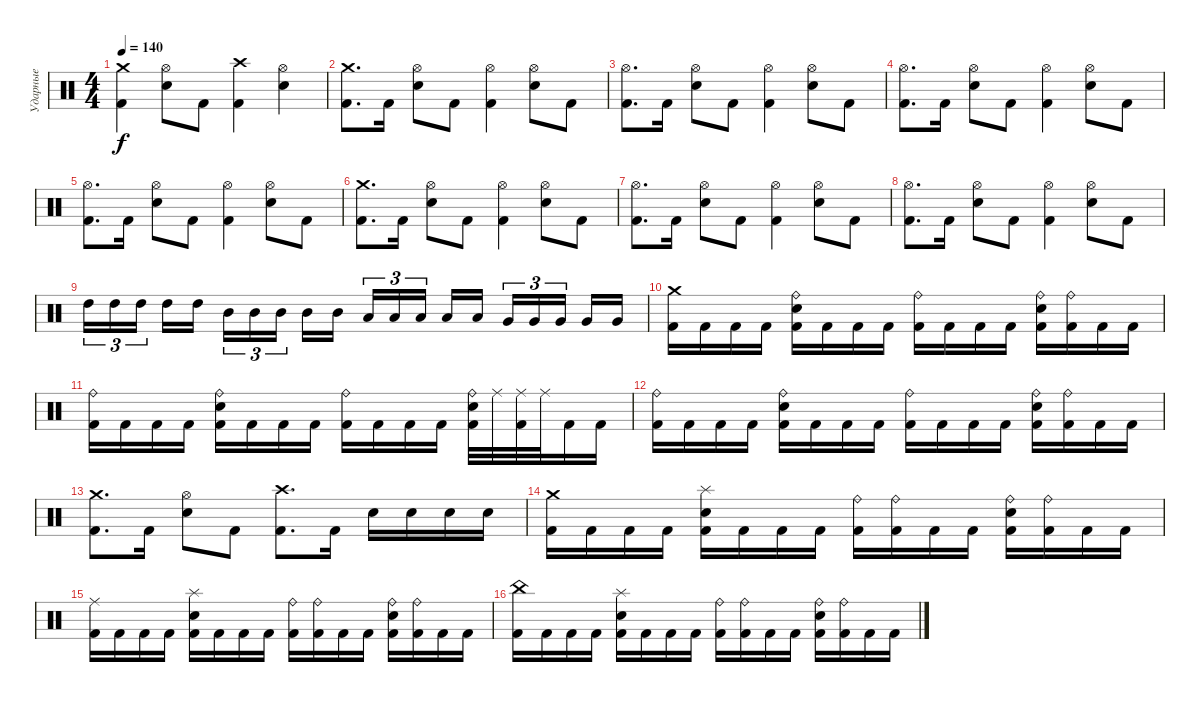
\track ("Ударные" "Ударные") {instrument percussion}
\staff {score}
\articulation defaults
\ts (4 4)
\tempo 140
\clef neutral
\ks c
("Crash medium (hit)" "Kick (hit) 2").4{dy f} ("Hi-Hat (open)" "Electric Snare (hit)").8 "Kick (hit) 2".8 ("Crash high (hit)" "Kick (hit) 2").4 ("Hi-Hat (open)" "Electric Snare (hit)").4 |
("Crash medium (hit)" "Kick (hit) 2").8{d} "Kick (hit) 2".16 ("Hi-Hat (open)" "Electric Snare (hit)").8 "Kick (hit) 2".8 ("Hi-Hat (open)" "Kick (hit) 2").4 ("Hi-Hat (open)" "Electric Snare (hit)").8 "Kick (hit) 2".8 |
("Hi-Hat (open)" "Kick (hit) 2").8{d} "Kick (hit) 2".16 ("Hi-Hat (open)" "Electric Snare (hit)").8 "Kick (hit) 2".8 ("Hi-Hat (open)" "Kick (hit) 2").4 ("Hi-Hat (open)" "Electric Snare (hit)").8 "Kick (hit) 2".8 |
("Hi-Hat (open)" "Kick (hit) 2").8{d} "Kick (hit) 2".16 ("Hi-Hat (open)" "Electric Snare (hit)").8 "Kick (hit) 2".8 ("Hi-Hat (open)" "Kick (hit) 2").4 ("Hi-Hat (open)" "Electric Snare (hit)").8 "Kick (hit) 2".8 |
("Hi-Hat (open)" "Kick (hit) 2").8{d} "Kick (hit) 2".16 ("Hi-Hat (open)" "Electric Snare (hit)").8 "Kick (hit) 2".8 ("Hi-Hat (open)" "Kick (hit) 2").4 ("Hi-Hat (open)" "Electric Snare (hit)").8 "Kick (hit) 2".8 |
("Crash medium (hit)" "Kick (hit) 2").8{d} "Kick (hit) 2".16 ("Hi-Hat (open)" "Electric Snare (hit)").8 "Kick (hit) 2".8 ("Hi-Hat (open)" "Kick (hit) 2").4 ("Hi-Hat (open)" "Electric Snare (hit)").8 "Kick (hit) 2".8 |
("Hi-Hat (open)" "Kick (hit) 2").8{d} "Kick (hit) 2".16 ("Hi-Hat (open)" "Electric Snare (hit)").8 "Kick (hit) 2".8 ("Hi-Hat (open)" "Kick (hit) 2").4 ("Hi-Hat (open)" "Electric Snare (hit)").8 "Kick (hit) 2".8 |
("Hi-Hat (open)" "Kick (hit) 2").8{d} "Kick (hit) 2".16 ("Hi-Hat (open)" "Electric Snare (hit)").8 "Kick (hit) 2".8 ("Hi-Hat (open)" "Kick (hit) 2").4 ("Hi-Hat (open)" "Electric Snare (hit)").8 "Kick (hit) 2".8 |
"High Tom (hit)".16{tu (3 2)} "High Tom (hit)".16{tu (3 2)} "High Tom (hit)".16{tu (3 2) beam splitsecondary} "High Tom (hit)".16 "High Tom (hit)".16 "Mid Tom (hit)".16{tu (3 2)} "Mid Tom (hit)".16{tu (3 2)} "Mid Tom (hit)".16{tu (3 2) beam splitsecondary} "Mid Tom (hit)".16 "Mid Tom (hit)".16 "Low Tom (hit)".16{tu (3 2)} "Low Tom (hit)".16{tu (3 2)} "Low Tom (hit)".16{tu (3 2) beam splitsecondary} "Low Tom (hit)".16 "Low Tom (hit)".16 "Very Low Tom (hit)".16{tu (3 2)} "Very Low Tom (hit)".16{tu (3 2)} "Very Low Tom (hit)".16{tu (3 2) beam splitsecondary} "Very Low Tom (hit)".16 "Very Low Tom (hit)".16 |
("Crash medium (hit)" "Kick (hit) 2").16 "Kick (hit) 2".16 "Kick (hit) 2".16 "Kick (hit) 2".16 ("Ride (bell)" "Electric Snare (hit)" "Kick (hit) 2").16 "Kick (hit) 2".16 "Kick (hit) 2".16 "Kick (hit) 2".16 ("Ride (bell)" "Kick (hit) 2").16 "Kick (hit) 2".16 "Kick (hit) 2".16 "Kick (hit) 2".16 ("Ride (bell)" "Electric Snare (hit)" "Kick (hit) 2").16 ("Ride (bell)" "Kick (hit) 2").16 "Kick (hit) 2".16 "Kick (hit) 2".16 |
("Ride (bell)" "Kick (hit) 2").16 "Kick (hit) 2".16 "Kick (hit) 2".16 "Kick (hit) 2".16 ("Ride (bell)" "Electric Snare (hit)" "Kick (hit) 2").16 "Kick (hit) 2".16 "Kick (hit) 2".16 "Kick (hit) 2".16 ("Ride (bell)" "Kick (hit) 2").16 "Kick (hit) 2".16 "Kick (hit) 2".16 "Kick (hit) 2".16 ("Ride (bell)" "Electric Snare (hit)" "Kick (hit) 2").32 "Ride (middle)".32 ("Ride (middle)" "Kick (hit) 2").32 "Ride (middle)".32 "Kick (hit) 2".16 "Kick (hit) 2".16 |
("Ride (bell)" "Kick (hit) 2").16 "Kick (hit) 2".16 "Kick (hit) 2".16 "Kick (hit) 2".16 ("Ride (bell)" "Electric Snare (hit)" "Kick (hit) 2").16 "Kick (hit) 2".16 "Kick (hit) 2".16 "Kick (hit) 2".16 ("Ride (bell)" "Kick (hit) 2").16 "Kick (hit) 2".16 "Kick (hit) 2".16 "Kick (hit) 2".16 ("Ride (bell)" "Electric Snare (hit)" "Kick (hit) 2").16 ("Ride (bell)" "Kick (hit) 2").16 "Kick (hit) 2".16 "Kick (hit) 2".16 |
("Crash medium (hit)" "Kick (hit) 2").8{d} "Kick (hit) 2".16 ("Hi-Hat (open)" "Electric Snare (hit)").8 "Kick (hit) 2".8 ("Crash high (hit)" "Kick (hit) 2").8{d} "Kick (hit) 2".16 "Electric Snare (hit)".16 "Electric Snare (hit)".16 "Electric Snare (hit)".16 "Electric Snare (hit)".16 |
("Crash medium (hit)" "Kick (hit) 2").16 "Kick (hit) 2".16 "Kick (hit) 2".16 "Kick (hit) 2".16 ("Splash (hit)" "Electric Snare (hit)" "Kick (hit) 2").16 "Kick (hit) 2".16 "Kick (hit) 2".16 "Kick (hit) 2".16 ("Ride (bell)" "Kick (hit) 2").16 ("Ride (bell)" "Kick (hit) 2").16 "Kick (hit) 2".16 "Kick (hit) 2".16 ("Ride (bell)" "Electric Snare (hit)" "Kick (hit) 2").16 ("Ride (bell)" "Kick (hit) 2").16 "Kick (hit) 2".16 "Kick (hit) 2".16 |
("Ride (middle)" "Kick (hit) 2").16 "Kick (hit) 2".16 "Kick (hit) 2".16 "Kick (hit) 2".16 ("Splash (hit)" "Electric Snare (hit)" "Kick (hit) 2").16 "Kick (hit) 2".16 "Kick (hit) 2".16 "Kick (hit) 2".16 ("Ride (bell)" "Kick (hit) 2").16 ("Ride (bell)" "Kick (hit) 2").16 "Kick (hit) 2".16 "Kick (hit) 2".16 ("Ride (bell)" "Electric Snare (hit)" "Kick (hit) 2").16 ("Ride (bell)" "Kick (hit) 2").16 "Kick (hit) 2".16 "Kick (hit) 2".16 |
("China (hit)" "Kick (hit) 2").16 "Kick (hit) 2".16 "Kick (hit) 2".16 "Kick (hit) 2".16 ("Splash (hit)" "Electric Snare (hit)" "Kick (hit) 2").16 "Kick (hit) 2".16 "Kick (hit) 2".16 "Kick (hit) 2".16 ("Ride (bell)" "Kick (hit) 2").16 ("Ride (bell)" "Kick (hit) 2").16 "Kick (hit) 2".16 "Kick (hit) 2".16 ("Ride (bell)" "Electric Snare (hit)" "Kick (hit) 2").16 ("Ride (bell)" "Kick (hit) 2").16 "Kick (hit) 2".16 "Kick (hit) 2".16
